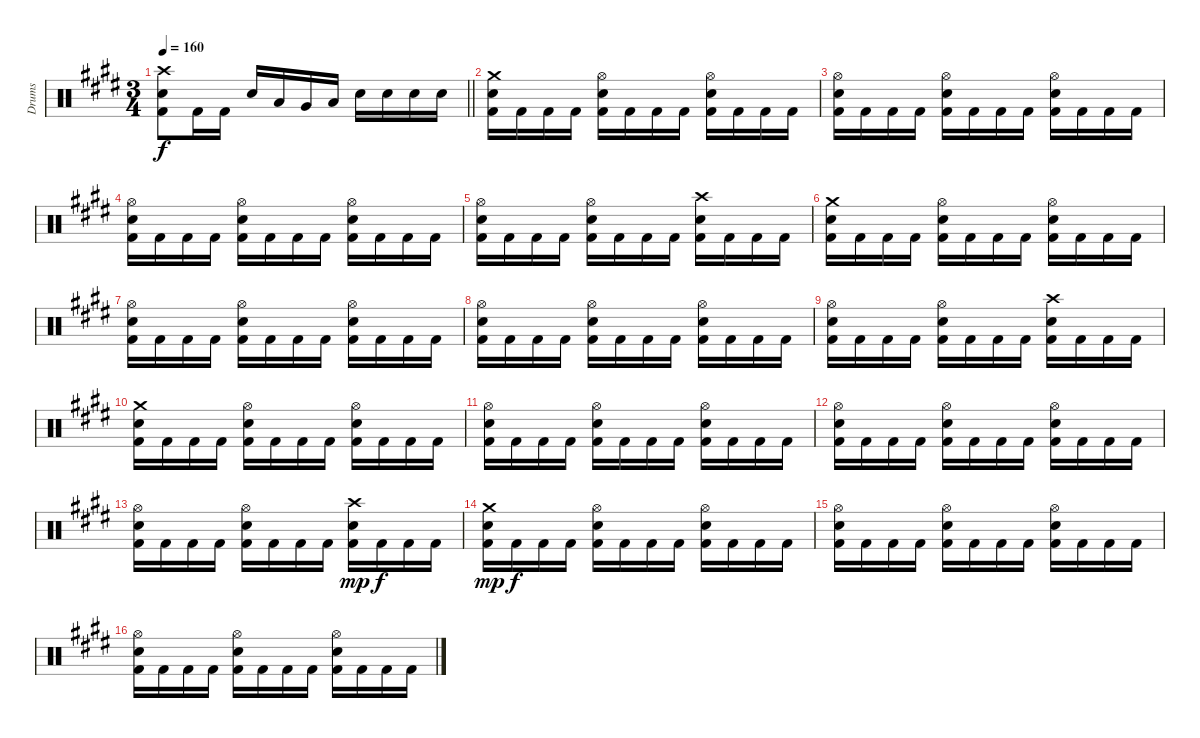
\track ("Drums" "Drums") {instrument percussion}
\staff {score}
\articulation defaults
\ts (3 4)
\tempo 160
\clef neutral
\barLineRight lightlight
\ks c#minor
("Crash high (hit)" "Snare (hit) 2" "Kick (hit) 2").8{dy f} "Kick (hit) 2".16 "Kick (hit) 2".16 "Snare (hit) 2".16 "Low Tom (hit)".16 "Very Low Tom (hit)".16 "Low Floor Tom (hit)".16 "Snare (hit) 2".16 "Snare (hit) 2".16 "Snare (hit) 2".16 "Snare (hit) 2".16 |
("Crash medium (hit)" "Snare (hit) 2" "Kick (hit) 2").16 "Kick (hit) 2".16 "Kick (hit) 2".16 "Kick (hit) 2".16 ("Hi-Hat (open)" "Snare (hit) 2" "Kick (hit) 2").16 "Kick (hit) 2".16 "Kick (hit) 2".16 "Kick (hit) 2".16 ("Hi-Hat (open)" "Snare (hit) 2" "Kick (hit) 2").16 "Kick (hit) 2".16 "Kick (hit) 2".16 "Kick (hit) 2".16 |
("Hi-Hat (open)" "Snare (hit) 2" "Kick (hit) 2").16 "Kick (hit) 2".16 "Kick (hit) 2".16 "Kick (hit) 2".16 ("Hi-Hat (open)" "Snare (hit) 2" "Kick (hit) 2").16 "Kick (hit) 2".16 "Kick (hit) 2".16 "Kick (hit) 2".16 ("Hi-Hat (open)" "Snare (hit) 2" "Kick (hit) 2").16 "Kick (hit) 2".16 "Kick (hit) 2".16 "Kick (hit) 2".16 |
("Hi-Hat (open)" "Snare (hit) 2" "Kick (hit) 2").16 "Kick (hit) 2".16 "Kick (hit) 2".16 "Kick (hit) 2".16 ("Hi-Hat (open)" "Snare (hit) 2" "Kick (hit) 2").16 "Kick (hit) 2".16 "Kick (hit) 2".16 "Kick (hit) 2".16 ("Hi-Hat (open)" "Snare (hit) 2" "Kick (hit) 2").16 "Kick (hit) 2".16 "Kick (hit) 2".16 "Kick (hit) 2".16 |
("Hi-Hat (open)" "Snare (hit) 2" "Kick (hit) 2").16 "Kick (hit) 2".16 "Kick (hit) 2".16 "Kick (hit) 2".16 ("Hi-Hat (open)" "Snare (hit) 2" "Kick (hit) 2").16 "Kick (hit) 2".16 "Kick (hit) 2".16 "Kick (hit) 2".16 ("Crash high (hit)" "Snare (hit) 2" "Kick (hit) 2").16 "Kick (hit) 2".16 "Kick (hit) 2".16 "Kick (hit) 2".16 |
("Crash medium (hit)" "Snare (hit) 2" "Kick (hit) 2").16 "Kick (hit) 2".16 "Kick (hit) 2".16 "Kick (hit) 2".16 ("Hi-Hat (open)" "Snare (hit) 2" "Kick (hit) 2").16 "Kick (hit) 2".16 "Kick (hit) 2".16 "Kick (hit) 2".16 ("Hi-Hat (open)" "Snare (hit) 2" "Kick (hit) 2").16 "Kick (hit) 2".16 "Kick (hit) 2".16 "Kick (hit) 2".16 |
("Hi-Hat (open)" "Snare (hit) 2" "Kick (hit) 2").16 "Kick (hit) 2".16 "Kick (hit) 2".16 "Kick (hit) 2".16 ("Hi-Hat (open)" "Snare (hit) 2" "Kick (hit) 2").16 "Kick (hit) 2".16 "Kick (hit) 2".16 "Kick (hit) 2".16 ("Hi-Hat (open)" "Snare (hit) 2" "Kick (hit) 2").16 "Kick (hit) 2".16 "Kick (hit) 2".16 "Kick (hit) 2".16 |
("Hi-Hat (open)" "Snare (hit) 2" "Kick (hit) 2").16 "Kick (hit) 2".16 "Kick (hit) 2".16 "Kick (hit) 2".16 ("Hi-Hat (open)" "Snare (hit) 2" "Kick (hit) 2").16 "Kick (hit) 2".16 "Kick (hit) 2".16 "Kick (hit) 2".16 ("Hi-Hat (open)" "Snare (hit) 2" "Kick (hit) 2").16 "Kick (hit) 2".16 "Kick (hit) 2".16 "Kick (hit) 2".16 |
("Hi-Hat (open)" "Snare (hit) 2" "Kick (hit) 2").16 "Kick (hit) 2".16 "Kick (hit) 2".16 "Kick (hit) 2".16 ("Hi-Hat (open)" "Snare (hit) 2" "Kick (hit) 2").16 "Kick (hit) 2".16 "Kick (hit) 2".16 "Kick (hit) 2".16 ("Crash high (hit)" "Snare (hit) 2" "Kick (hit) 2").16 "Kick (hit) 2".16 "Kick (hit) 2".16 "Kick (hit) 2".16 |
("Crash medium (hit)" "Snare (hit) 2" "Kick (hit) 2").16 "Kick (hit) 2".16 "Kick (hit) 2".16 "Kick (hit) 2".16 ("Hi-Hat (open)" "Snare (hit) 2" "Kick (hit) 2").16 "Kick (hit) 2".16 "Kick (hit) 2".16 "Kick (hit) 2".16 ("Hi-Hat (open)" "Snare (hit) 2" "Kick (hit) 2").16 "Kick (hit) 2".16 "Kick (hit) 2".16 "Kick (hit) 2".16 |
("Hi-Hat (open)" "Snare (hit) 2" "Kick (hit) 2").16 "Kick (hit) 2".16 "Kick (hit) 2".16 "Kick (hit) 2".16 ("Hi-Hat (open)" "Snare (hit) 2" "Kick (hit) 2").16 "Kick (hit) 2".16 "Kick (hit) 2".16 "Kick (hit) 2".16 ("Hi-Hat (open)" "Snare (hit) 2" "Kick (hit) 2").16 "Kick (hit) 2".16 "Kick (hit) 2".16 "Kick (hit) 2".16 |
("Hi-Hat (open)" "Snare (hit) 2" "Kick (hit) 2").16 "Kick (hit) 2".16 "Kick (hit) 2".16 "Kick (hit) 2".16 ("Hi-Hat (open)" "Snare (hit) 2" "Kick (hit) 2").16 "Kick (hit) 2".16 "Kick (hit) 2".16 "Kick (hit) 2".16 ("Hi-Hat (open)" "Snare (hit) 2" "Kick (hit) 2").16 "Kick (hit) 2".16 "Kick (hit) 2".16 "Kick (hit) 2".16 |
("Hi-Hat (open)" "Snare (hit) 2" "Kick (hit) 2").16 "Kick (hit) 2".16 "Kick (hit) 2".16 "Kick (hit) 2".16 ("Hi-Hat (open)" "Snare (hit) 2" "Kick (hit) 2").16 "Kick (hit) 2".16 "Kick (hit) 2".16 "Kick (hit) 2".16 ("Crash high (hit)" "Snare (hit) 2" "Kick (hit) 2").16{dy mp} "Kick (hit) 2".16{dy f} "Kick (hit) 2".16 "Kick (hit) 2".16 |
("Crash medium (hit)" "Snare (hit) 2" "Kick (hit) 2").16{dy mp} "Kick (hit) 2".16{dy f} "Kick (hit) 2".16 "Kick (hit) 2".16 ("Hi-Hat (open)" "Snare (hit) 2" "Kick (hit) 2").16 "Kick (hit) 2".16 "Kick (hit) 2".16 "Kick (hit) 2".16 ("Hi-Hat (open)" "Snare (hit) 2" "Kick (hit) 2").16 "Kick (hit) 2".16 "Kick (hit) 2".16 "Kick (hit) 2".16 |
("Hi-Hat (open)" "Snare (hit) 2" "Kick (hit) 2").16 "Kick (hit) 2".16 "Kick (hit) 2".16 "Kick (hit) 2".16 ("Hi-Hat (open)" "Snare (hit) 2" "Kick (hit) 2").16 "Kick (hit) 2".16 "Kick (hit) 2".16 "Kick (hit) 2".16 ("Hi-Hat (open)" "Snare (hit) 2" "Kick (hit) 2").16 "Kick (hit) 2".16 "Kick (hit) 2".16 "Kick (hit) 2".16 |
("Hi-Hat (open)" "Snare (hit) 2" "Kick (hit) 2").16 "Kick (hit) 2".16 "Kick (hit) 2".16 "Kick (hit) 2".16 ("Hi-Hat (open)" "Snare (hit) 2" "Kick (hit) 2").16 "Kick (hit) 2".16 "Kick (hit) 2".16 "Kick (hit) 2".16 ("Hi-Hat (open)" "Snare (hit) 2" "Kick (hit) 2").16 "Kick (hit) 2".16 "Kick (hit) 2".16 "Kick (hit) 2".16
